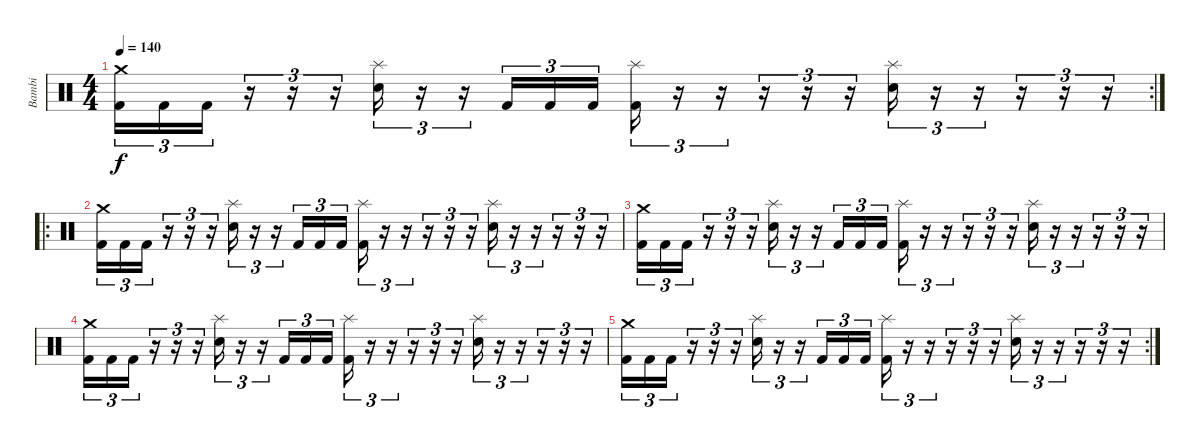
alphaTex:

\track ("Bambi" "Bambi") {instrument percussion}
\staff {score}
\articulation defaults
\rc 2
\ts (4 4)
\tempo 140
\clef neutral
\ks c
("Crash medium (hit)" "Kick (hit) 2").16{tu (3 2) dy f} "Kick (hit) 2".16{tu (3 2)} "Kick (hit) 2".16{tu (3 2)} r.16{tu (3 2)} r.16{tu (3 2)} r.16{tu (3 2)} ("Splash (hit)" "Electric Snare (hit)").16{tu (3 2)} r.16{tu (3 2)} r.16{tu (3 2)} "Kick (hit) 2".16{tu (3 2)} "Kick (hit) 2".16{tu (3 2)} "Kick (hit) 2".16{tu (3 2)} ("Splash (hit)" "Kick (hit) 2").16{tu (3 2)} r.16{tu (3 2)} r.16{tu (3 2)} r.16{tu (3 2)} r.16{tu (3 2)} r.16{tu (3 2)} ("Splash (hit)" "Electric Snare (hit)").16{tu (3 2)} r.16{tu (3 2)} r.16{tu (3 2)} r.16{tu (3 2)} r.16{tu (3 2)} r.16{tu (3 2)} |
\ro
("Crash medium (hit)" "Kick (hit) 2").16{tu (3 2)} "Kick (hit) 2".16{tu (3 2)} "Kick (hit) 2".16{tu (3 2)} r.16{tu (3 2)} r.16{tu (3 2)} r.16{tu (3 2)} ("Splash (hit)" "Electric Snare (hit)").16{tu (3 2)} r.16{tu (3 2)} r.16{tu (3 2)} "Kick (hit) 2".16{tu (3 2)} "Kick (hit) 2".16{tu (3 2)} "Kick (hit) 2".16{tu (3 2)} ("Splash (hit)" "Kick (hit) 2").16{tu (3 2)} r.16{tu (3 2)} r.16{tu (3 2)} r.16{tu (3 2)} r.16{tu (3 2)} r.16{tu (3 2)} ("Splash (hit)" "Electric Snare (hit)").16{tu (3 2)} r.16{tu (3 2)} r.16{tu (3 2)} r.16{tu (3 2)} r.16{tu (3 2)} r.16{tu (3 2)} |
("Crash medium (hit)" "Kick (hit) 2").16{tu (3 2)} "Kick (hit) 2".16{tu (3 2)} "Kick (hit) 2".16{tu (3 2)} r.16{tu (3 2)} r.16{tu (3 2)} r.16{tu (3 2)} ("Splash (hit)" "Electric Snare (hit)").16{tu (3 2)} r.16{tu (3 2)} r.16{tu (3 2)} "Kick (hit) 2".16{tu (3 2)} "Kick (hit) 2".16{tu (3 2)} "Kick (hit) 2".16{tu (3 2)} ("Splash (hit)" "Kick (hit) 2").16{tu (3 2)} r.16{tu (3 2)} r.16{tu (3 2)} r.16{tu (3 2)} r.16{tu (3 2)} r.16{tu (3 2)} ("Splash (hit)" "Electric Snare (hit)").16{tu (3 2)} r.16{tu (3 2)} r.16{tu (3 2)} r.16{tu (3 2)} r.16{tu (3 2)} r.16{tu (3 2)} |
("Crash medium (hit)" "Kick (hit) 2").16{tu (3 2)} "Kick (hit) 2".16{tu (3 2)} "Kick (hit) 2".16{tu (3 2)} r.16{tu (3 2)} r.16{tu (3 2)} r.16{tu (3 2)} ("Splash (hit)" "Electric Snare (hit)").16{tu (3 2)} r.16{tu (3 2)} r.16{tu (3 2)} "Kick (hit) 2".16{tu (3 2)} "Kick (hit) 2".16{tu (3 2)} "Kick (hit) 2".16{tu (3 2)} ("Splash (hit)" "Kick (hit) 2").16{tu (3 2)} r.16{tu (3 2)} r.16{tu (3 2)} r.16{tu (3 2)} r.16{tu (3 2)} r.16{tu (3 2)} ("Splash (hit)" "Electric Snare (hit)").16{tu (3 2)} r.16{tu (3 2)} r.16{tu (3 2)} r.16{tu (3 2)} r.16{tu (3 2)} r.16{tu (3 2)} |
\rc 2
("Crash medium (hit)" "Kick (hit) 2").16{tu (3 2)} "Kick (hit) 2".16{tu (3 2)} "Kick (hit) 2".16{tu (3 2)} r.16{tu (3 2)} r.16{tu (3 2)} r.16{tu (3 2)} ("Splash (hit)" "Electric Snare (hit)").16{tu (3 2)} r.16{tu (3 2)} r.16{tu (3 2)} "Kick (hit) 2".16{tu (3 2)} "Kick (hit) 2".16{tu (3 2)} "Kick (hit) 2".16{tu (3 2)} ("Splash (hit)" "Kick (hit) 2").16{tu (3 2)} r.16{tu (3 2)} r.16{tu (3 2)} r.16{tu (3 2)} r.16{tu (3 2)} r.16{tu (3 2)} ("Splash (hit)" "Electric Snare (hit)").16{tu (3 2)} r.16{tu (3 2)} r.16{tu (3 2)} r.16{tu (3 2)} r.16{tu (3 2)} r.16{tu (3 2)}
